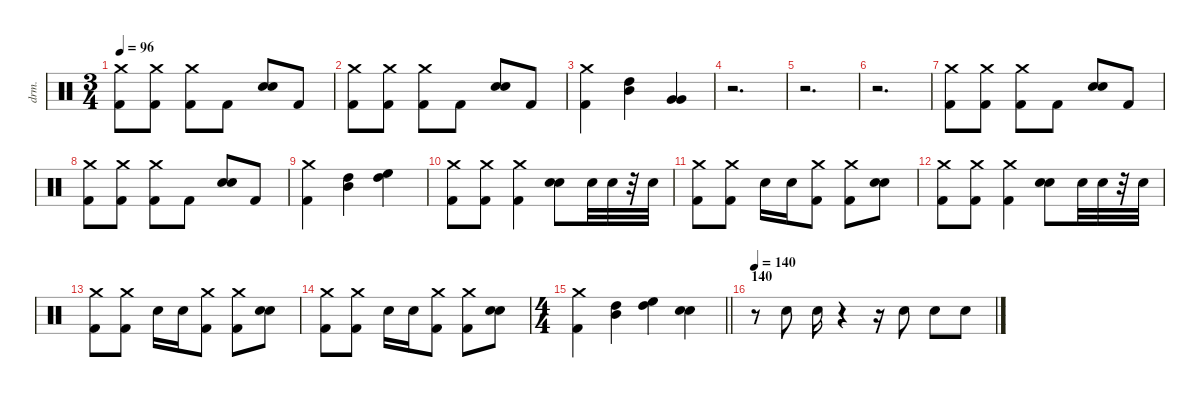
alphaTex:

\defaultSystemsLayout 4
\hideDynamics
\bracketExtendMode nobrackets
\otherSystemsTrackNameOrientation horizontal
\track ("Drums" "drm.") {instrument percussion}
\staff {score}
\articulation defaults
\ts (3 4)
\tempo 96
\clef neutral
\ks c
("Kick (hit) 2" "Crash medium (hit)").8{dy fff} ("Kick (hit) 2" "Crash medium (hit)").8 ("Crash medium (hit)" "Kick (hit) 2").8 "Kick (hit) 2".8 ("Snare (hit) 2" "Snare (hit) 2").8{dy f} "Kick (hit) 2".8{dy fff} |
("Kick (hit) 2" "Crash medium (hit)").8 ("Kick (hit) 2" "Crash medium (hit)").8 ("Crash medium (hit)" "Kick (hit) 2").8 "Kick (hit) 2".8 ("Snare (hit) 2" "Snare (hit) 2").8{dy f} "Kick (hit) 2".8{dy fff} |
("Kick (hit) 2" "Crash medium (hit)").4 ("High Tom (hit)" "Mid Tom (hit)").4 ("Very Low Tom (hit)" "Very Low Tom (hit)").4{dy f} |
r.2{d} |
r.2{d} |
r.2{d} |
("Kick (hit) 2" "Crash medium (hit)").8{dy fff} ("Kick (hit) 2" "Crash medium (hit)").8 ("Crash medium (hit)" "Kick (hit) 2").8 "Kick (hit) 2".8 ("Snare (hit) 2" "Snare (hit) 2").8{dy f} "Kick (hit) 2".8{dy fff} |
("Kick (hit) 2" "Crash medium (hit)").8 ("Kick (hit) 2" "Crash medium (hit)").8 ("Crash medium (hit)" "Kick (hit) 2").8 "Kick (hit) 2".8 ("Snare (hit) 2" "Snare (hit) 2").8{dy f} "Kick (hit) 2".8{dy fff} |
("Kick (hit) 2" "Crash medium (hit)").4 ("High Tom (hit)" "Mid Tom (hit)").4 ("High Floor Tom (hit)" "High Tom (hit)").4 |
("Kick (hit) 2" "Crash medium (hit)").8 ("Kick (hit) 2" "Crash medium (hit)").8 ("Kick (hit) 2" "Crash medium (hit)").4 ("Snare (hit) 2" "Snare (hit) 2").8{dy f} "Snare (hit) 2".32{dy fff} "Snare (hit) 2".32 r.32 "Snare (hit) 2".32 |
("Kick (hit) 2" "Crash medium (hit)").8 ("Kick (hit) 2" "Crash medium (hit)").8 "Snare (hit) 2".16 "Snare (hit) 2".16 ("Crash medium (hit)" "Kick (hit) 2").8 ("Crash medium (hit)" "Kick (hit) 2").8 ("Snare (hit) 2" "Snare (hit) 2").8{dy f} |
("Kick (hit) 2" "Crash medium (hit)").8{dy fff} ("Kick (hit) 2" "Crash medium (hit)").8 ("Kick (hit) 2" "Crash medium (hit)").4 ("Snare (hit) 2" "Snare (hit) 2").8{dy f} "Snare (hit) 2".32{dy fff} "Snare (hit) 2".32 r.32 "Snare (hit) 2".32 |
("Kick (hit) 2" "Crash medium (hit)").8 ("Kick (hit) 2" "Crash medium (hit)").8 "Snare (hit) 2".16 "Snare (hit) 2".16 ("Crash medium (hit)" "Kick (hit) 2").8 ("Crash medium (hit)" "Kick (hit) 2").8 ("Snare (hit) 2" "Snare (hit) 2").8{dy f} |
("Kick (hit) 2" "Crash medium (hit)").8{dy fff} ("Kick (hit) 2" "Crash medium (hit)").8 "Snare (hit) 2".16 "Snare (hit) 2".16 ("Crash medium (hit)" "Kick (hit) 2").8 ("Crash medium (hit)" "Kick (hit) 2").8 ("Snare (hit) 2" "Snare (hit) 2").8{dy f} |
\ts (4 4)
\beaming (8 2 2 2 2)
\barLineRight lightlight
("Kick (hit) 2" "Crash medium (hit)").4{dy fff} ("Mid Tom (hit)" "High Tom (hit)").4 ("High Floor Tom (hit)" "High Tom (hit)").4 ("Snare (hit) 2" "Snare (hit) 2").4{dy f} |
\section ("" "140")
\tempo 140
r.8 "Snare (hit) 2".8{dy fff} "Snare (hit) 2".16 r.4 r.16 "Snare (hit) 2".8 "Snare (hit) 2".8 "Snare (hit) 2".8
